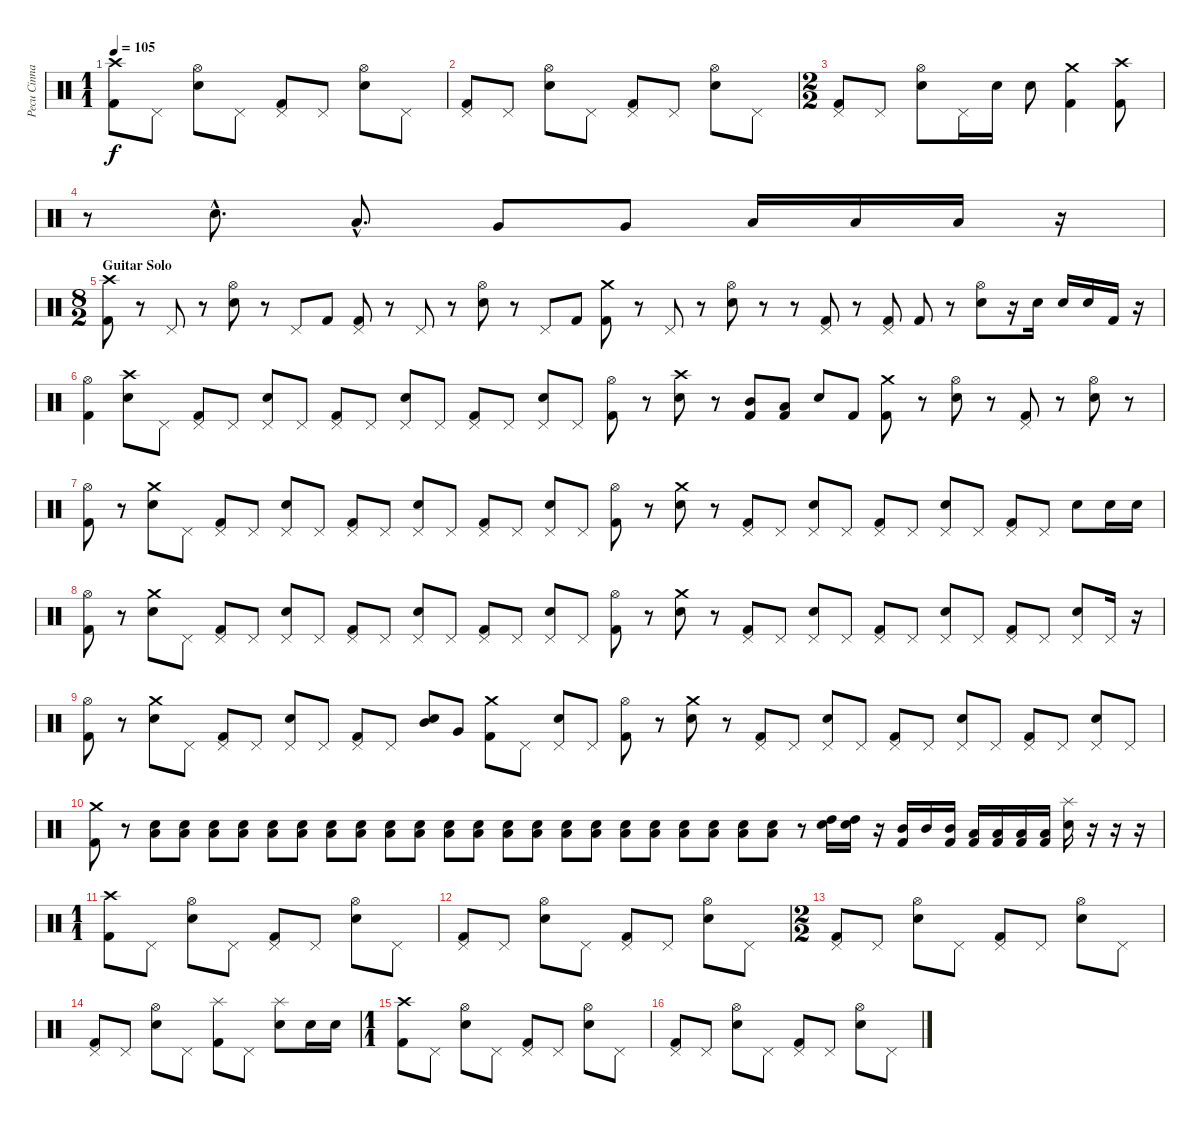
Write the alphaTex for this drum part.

\track ("Pecu Cinnari" "Pecu Cinna") {instrument percussion}
\staff {score}
\articulation defaults
\ts (1 1)
\tempo 105
\clef neutral
\ks c
("Crash high (hit)" "Kick (hit) 2").8{dy f} "Pedal Hi-Hat (hit)".8 ("Hi-Hat (open)" "Electric Snare (hit)").8 "Pedal Hi-Hat (hit)".8 ("Pedal Hi-Hat (hit)" "Kick (hit) 2").8 "Pedal Hi-Hat (hit)".8 ("Hi-Hat (open)" "Electric Snare (hit)").8 "Pedal Hi-Hat (hit)".8 |
("Pedal Hi-Hat (hit)" "Kick (hit) 2").8 "Pedal Hi-Hat (hit)".8 ("Hi-Hat (open)" "Electric Snare (hit)").8 "Pedal Hi-Hat (hit)".8 ("Pedal Hi-Hat (hit)" "Kick (hit) 2").8 "Pedal Hi-Hat (hit)".8 ("Hi-Hat (open)" "Electric Snare (hit)").8 "Pedal Hi-Hat (hit)".8 |
\ts (2 2)
("Pedal Hi-Hat (hit)" "Kick (hit) 2").8 "Pedal Hi-Hat (hit)".8 ("Hi-Hat (open)" "Electric Snare (hit)").8 "Pedal Hi-Hat (hit)".16 "Electric Snare (hit)".16 "Electric Snare (hit)".8 ("Crash medium (hit)" "Kick (hit) 2").4 ("Crash high (hit)" "Kick (hit) 2").8 |
r.8 "Electric Snare (hit)"{hac}.8{d} "Low Tom (hit)"{hac}.8{d} "Very Low Tom (hit)".8 "Very Low Tom (hit)".8 "Low Floor Tom (hit)".16 "Low Floor Tom (hit)".16 "Low Floor Tom (hit)".16 r.16 |
\ts (8 2)
\section ("" "Guitar Solo")
("Crash high (hit)" "Kick (hit) 2").8 r.8 "Pedal Hi-Hat (hit)".8 r.8 ("Hi-Hat (open)" "Electric Snare (hit)").8 r.8 "Pedal Hi-Hat (hit)".8 "Kick (hit) 2".8 ("Pedal Hi-Hat (hit)" "Kick (hit) 2").8 r.8 "Pedal Hi-Hat (hit)".8 r.8 ("Hi-Hat (open)" "Electric Snare (hit)").8 r.8 "Pedal Hi-Hat (hit)".8 "Kick (hit) 2".8 ("Crash medium (hit)" "Kick (hit) 2").8 r.8 "Pedal Hi-Hat (hit)".8 r.8 ("Hi-Hat (open)" "Electric Snare (hit)").8 r.8 r.8 ("Pedal Hi-Hat (hit)" "Kick (hit) 2").8 r.8 ("Pedal Hi-Hat (hit)" "Kick (hit) 2").8 "Kick (hit) 2".8 r.8 ("Hi-Hat (open)" "Electric Snare (hit)").8 r.16 "Electric Snare (hit)".16 "Electric Snare (hit)".16 "Electric Snare (hit)".16 "Kick (hit) 2".16 r.16 |
("Hi-Hat (open)" "Kick (hit) 2").4 ("Crash high (hit)" "Electric Snare (hit)").8 "Pedal Hi-Hat (hit)".8 ("Pedal Hi-Hat (hit)" "Kick (hit) 2").8 "Pedal Hi-Hat (hit)".8 ("Pedal Hi-Hat (hit)" "Electric Snare (hit)").8 "Pedal Hi-Hat (hit)".8 ("Pedal Hi-Hat (hit)" "Kick (hit) 2").8 "Pedal Hi-Hat (hit)".8 ("Pedal Hi-Hat (hit)" "Electric Snare (hit)").8 "Pedal Hi-Hat (hit)".8 ("Pedal Hi-Hat (hit)" "Kick (hit) 2").8 "Pedal Hi-Hat (hit)".8 ("Pedal Hi-Hat (hit)" "Electric Snare (hit)").8 "Pedal Hi-Hat (hit)".8 ("Hi-Hat (open)" "Kick (hit) 2").8 r.8 ("Crash high (hit)" "Electric Snare (hit)").8 r.8 ("Mid Tom (hit)" "Kick (hit) 2").8 ("Low Tom (hit)" "Kick (hit) 2").8 "Electric Snare (hit)".8 "Kick (hit) 2".8 ("Crash medium (hit)" "Kick (hit) 2").8 r.8 ("Hi-Hat (open)" "Electric Snare (hit)").8 r.8 ("Pedal Hi-Hat (hit)" "Kick (hit) 2").8 r.8 ("Hi-Hat (open)" "Electric Snare (hit)").8 r.8 |
("Hi-Hat (open)" "Kick (hit) 2").8 r.8 ("Crash medium (hit)" "Electric Snare (hit)").8 "Pedal Hi-Hat (hit)".8 ("Pedal Hi-Hat (hit)" "Kick (hit) 2").8 "Pedal Hi-Hat (hit)".8 ("Pedal Hi-Hat (hit)" "Electric Snare (hit)").8 "Pedal Hi-Hat (hit)".8 ("Pedal Hi-Hat (hit)" "Kick (hit) 2").8 "Pedal Hi-Hat (hit)".8 ("Pedal Hi-Hat (hit)" "Electric Snare (hit)").8 "Pedal Hi-Hat (hit)".8 ("Pedal Hi-Hat (hit)" "Kick (hit) 2").8 "Pedal Hi-Hat (hit)".8 ("Pedal Hi-Hat (hit)" "Electric Snare (hit)").8 "Pedal Hi-Hat (hit)".8 ("Hi-Hat (open)" "Kick (hit) 2").8 r.8 ("Crash medium (hit)" "Electric Snare (hit)").8 r.8 ("Pedal Hi-Hat (hit)" "Kick (hit) 2").8 "Pedal Hi-Hat (hit)".8 ("Pedal Hi-Hat (hit)" "Electric Snare (hit)").8 "Pedal Hi-Hat (hit)".8 ("Pedal Hi-Hat (hit)" "Kick (hit) 2").8 "Pedal Hi-Hat (hit)".8 ("Pedal Hi-Hat (hit)" "Electric Snare (hit)").8 "Pedal Hi-Hat (hit)".8 ("Pedal Hi-Hat (hit)" "Kick (hit) 2").8 "Pedal Hi-Hat (hit)".8 "Electric Snare (hit)".8 "Electric Snare (hit)".16 "Electric Snare (hit)".16 |
("Hi-Hat (open)" "Kick (hit) 2").8 r.8 ("Crash medium (hit)" "Electric Snare (hit)").8 "Pedal Hi-Hat (hit)".8 ("Pedal Hi-Hat (hit)" "Kick (hit) 2").8 "Pedal Hi-Hat (hit)".8 ("Pedal Hi-Hat (hit)" "Electric Snare (hit)").8 "Pedal Hi-Hat (hit)".8 ("Pedal Hi-Hat (hit)" "Kick (hit) 2").8 "Pedal Hi-Hat (hit)".8 ("Pedal Hi-Hat (hit)" "Electric Snare (hit)").8 "Pedal Hi-Hat (hit)".8 ("Pedal Hi-Hat (hit)" "Kick (hit) 2").8 "Pedal Hi-Hat (hit)".8 ("Pedal Hi-Hat (hit)" "Electric Snare (hit)").8 "Pedal Hi-Hat (hit)".8 ("Hi-Hat (open)" "Kick (hit) 2").8 r.8 ("Crash medium (hit)" "Electric Snare (hit)").8 r.8 ("Pedal Hi-Hat (hit)" "Kick (hit) 2").8 "Pedal Hi-Hat (hit)".8 ("Pedal Hi-Hat (hit)" "Electric Snare (hit)").8 "Pedal Hi-Hat (hit)".8 ("Pedal Hi-Hat (hit)" "Kick (hit) 2").8 "Pedal Hi-Hat (hit)".8 ("Pedal Hi-Hat (hit)" "Electric Snare (hit)").8 "Pedal Hi-Hat (hit)".8 ("Pedal Hi-Hat (hit)" "Kick (hit) 2").8 "Pedal Hi-Hat (hit)".8 ("Pedal Hi-Hat (hit)" "Electric Snare (hit)").8 "Pedal Hi-Hat (hit)".16 r.16 |
("Hi-Hat (open)" "Kick (hit) 2").8 r.8 ("Crash medium (hit)" "Electric Snare (hit)").8 "Pedal Hi-Hat (hit)".8 ("Pedal Hi-Hat (hit)" "Kick (hit) 2").8 "Pedal Hi-Hat (hit)".8 ("Pedal Hi-Hat (hit)" "Electric Snare (hit)").8 "Pedal Hi-Hat (hit)".8 ("Pedal Hi-Hat (hit)" "Kick (hit) 2").8 "Pedal Hi-Hat (hit)".8 ("Mid Tom (hit)" "Electric Snare (hit)").8 "Very Low Tom (hit)".8 ("Crash medium (hit)" "Kick (hit) 2").8 "Pedal Hi-Hat (hit)".8 ("Pedal Hi-Hat (hit)" "Electric Snare (hit)").8 "Pedal Hi-Hat (hit)".8 ("Hi-Hat (open)" "Kick (hit) 2").8 r.8 ("Crash medium (hit)" "Electric Snare (hit)").8 r.8 ("Pedal Hi-Hat (hit)" "Kick (hit) 2").8 "Pedal Hi-Hat (hit)".8 ("Pedal Hi-Hat (hit)" "Electric Snare (hit)").8 "Pedal Hi-Hat (hit)".8 ("Pedal Hi-Hat (hit)" "Kick (hit) 2").8 "Pedal Hi-Hat (hit)".8 ("Pedal Hi-Hat (hit)" "Electric Snare (hit)").8 "Pedal Hi-Hat (hit)".8 ("Pedal Hi-Hat (hit)" "Kick (hit) 2").8 "Pedal Hi-Hat (hit)".8 ("Pedal Hi-Hat (hit)" "Electric Snare (hit)").8 "Pedal Hi-Hat (hit)".8 |
("Crash medium (hit)" "Kick (hit) 2").8 r.8 ("Low Tom (hit)" "Electric Snare (hit)").8 ("Low Tom (hit)" "Electric Snare (hit)").8 ("Low Tom (hit)" "Electric Snare (hit)").8 ("Low Tom (hit)" "Electric Snare (hit)").8 ("Low Tom (hit)" "Electric Snare (hit)").8 ("Low Tom (hit)" "Electric Snare (hit)").8 ("Low Tom (hit)" "Electric Snare (hit)").8 ("Low Tom (hit)" "Electric Snare (hit)").8 ("Low Tom (hit)" "Electric Snare (hit)").8 ("Low Tom (hit)" "Electric Snare (hit)").8 ("Low Tom (hit)" "Electric Snare (hit)").8 ("Low Tom (hit)" "Electric Snare (hit)").8 ("Low Tom (hit)" "Electric Snare (hit)").8 ("Low Tom (hit)" "Electric Snare (hit)").8 ("Low Tom (hit)" "Electric Snare (hit)").8 ("Low Tom (hit)" "Electric Snare (hit)").8 ("Low Tom (hit)" "Electric Snare (hit)").8 ("Low Tom (hit)" "Electric Snare (hit)").8 ("Low Tom (hit)" "Electric Snare (hit)").8 ("Low Tom (hit)" "Electric Snare (hit)").8 ("Low Tom (hit)" "Electric Snare (hit)").8 ("Low Tom (hit)" "Electric Snare (hit)").8 r.8 ("High Tom (hit)" "Electric Snare (hit)").16 ("High Tom (hit)" "Electric Snare (hit)").16 r.16 ("Mid Tom (hit)" "Kick (hit) 2").16 "Mid Tom (hit)".16 ("Mid Tom (hit)" "Kick (hit) 2").16 ("Low Tom (hit)" "Kick (hit) 2").16 ("Low Tom (hit)" "Kick (hit) 2").16 ("Low Tom (hit)" "Kick (hit) 2").16 ("Low Tom (hit)" "Kick (hit) 2").16 ("Splash (hit)" "Electric Snare (hit)").16 r.16 r.16 r.16 |
\ts (1 1)
("Crash high (hit)" "Kick (hit) 2").8 "Pedal Hi-Hat (hit)".8 ("Hi-Hat (open)" "Electric Snare (hit)").8 "Pedal Hi-Hat (hit)".8 ("Pedal Hi-Hat (hit)" "Kick (hit) 2").8 "Pedal Hi-Hat (hit)".8 ("Hi-Hat (open)" "Electric Snare (hit)").8 "Pedal Hi-Hat (hit)".8 |
("Pedal Hi-Hat (hit)" "Kick (hit) 2").8 "Pedal Hi-Hat (hit)".8 ("Hi-Hat (open)" "Electric Snare (hit)").8 "Pedal Hi-Hat (hit)".8 ("Pedal Hi-Hat (hit)" "Kick (hit) 2").8 "Pedal Hi-Hat (hit)".8 ("Hi-Hat (open)" "Electric Snare (hit)").8 "Pedal Hi-Hat (hit)".8 |
\ts (2 2)
("Pedal Hi-Hat (hit)" "Kick (hit) 2").8 "Pedal Hi-Hat (hit)".8 ("Hi-Hat (open)" "Electric Snare (hit)").8 "Pedal Hi-Hat (hit)".8 ("Pedal Hi-Hat (hit)" "Kick (hit) 2").8 "Pedal Hi-Hat (hit)".8 ("Hi-Hat (open)" "Electric Snare (hit)").8 "Pedal Hi-Hat (hit)".8 |
("Pedal Hi-Hat (hit)" "Kick (hit) 2").8 "Pedal Hi-Hat (hit)".8 ("Hi-Hat (open)" "Electric Snare (hit)").8 "Pedal Hi-Hat (hit)".8 ("Splash (hit)" "Kick (hit) 2").8 "Pedal Hi-Hat (hit)".8 ("Splash (hit)" "Electric Snare (hit)").8 "Electric Snare (hit)".16 "Electric Snare (hit)".16 |
\ts (1 1)
("Crash high (hit)" "Kick (hit) 2").8 "Pedal Hi-Hat (hit)".8 ("Hi-Hat (open)" "Electric Snare (hit)").8 "Pedal Hi-Hat (hit)".8 ("Pedal Hi-Hat (hit)" "Kick (hit) 2").8 "Pedal Hi-Hat (hit)".8 ("Hi-Hat (open)" "Electric Snare (hit)").8 "Pedal Hi-Hat (hit)".8 |
("Pedal Hi-Hat (hit)" "Kick (hit) 2").8 "Pedal Hi-Hat (hit)".8 ("Hi-Hat (open)" "Electric Snare (hit)").8 "Pedal Hi-Hat (hit)".8 ("Pedal Hi-Hat (hit)" "Kick (hit) 2").8 "Pedal Hi-Hat (hit)".8 ("Hi-Hat (open)" "Electric Snare (hit)").8 "Pedal Hi-Hat (hit)".8
